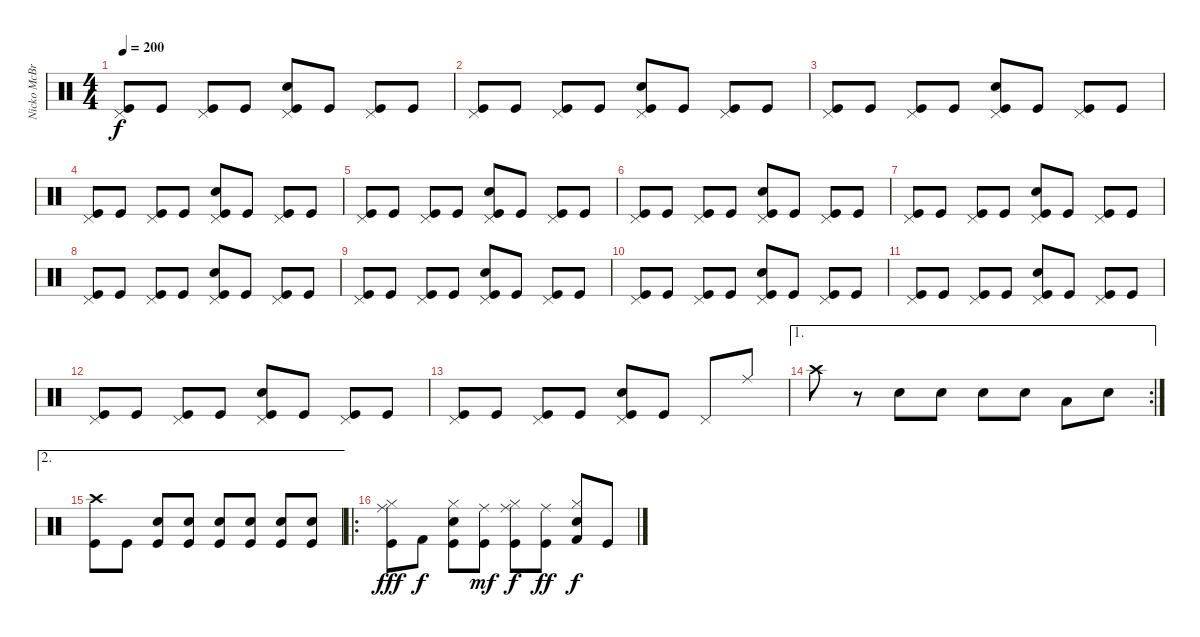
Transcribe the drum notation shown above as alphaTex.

\track ("Nicko McBrain" "Nicko McBr") {instrument percussion}
\staff {score}
\articulation defaults
\ts (4 4)
\tempo 200
\clef neutral
\ks c
("Pedal Hi-Hat (hit)" "Kick (hit)").8{dy f} "Kick (hit)".8 ("Pedal Hi-Hat (hit)" "Kick (hit)").8 "Kick (hit)".8 ("Pedal Hi-Hat (hit)" "Electric Snare (hit)" "Kick (hit)").8 "Kick (hit)".8 ("Pedal Hi-Hat (hit)" "Kick (hit)").8 "Kick (hit)".8 |
("Pedal Hi-Hat (hit)" "Kick (hit)").8 "Kick (hit)".8 ("Pedal Hi-Hat (hit)" "Kick (hit)").8 "Kick (hit)".8 ("Pedal Hi-Hat (hit)" "Electric Snare (hit)" "Kick (hit)").8 "Kick (hit)".8 ("Pedal Hi-Hat (hit)" "Kick (hit)").8 "Kick (hit)".8 |
("Pedal Hi-Hat (hit)" "Kick (hit)").8 "Kick (hit)".8 ("Pedal Hi-Hat (hit)" "Kick (hit)").8 "Kick (hit)".8 ("Pedal Hi-Hat (hit)" "Electric Snare (hit)" "Kick (hit)").8 "Kick (hit)".8 ("Pedal Hi-Hat (hit)" "Kick (hit)").8 "Kick (hit)".8 |
("Pedal Hi-Hat (hit)" "Kick (hit)").8 "Kick (hit)".8 ("Pedal Hi-Hat (hit)" "Kick (hit)").8 "Kick (hit)".8 ("Pedal Hi-Hat (hit)" "Electric Snare (hit)" "Kick (hit)").8 "Kick (hit)".8 ("Pedal Hi-Hat (hit)" "Kick (hit)").8 "Kick (hit)".8 |
("Pedal Hi-Hat (hit)" "Kick (hit)").8 "Kick (hit)".8 ("Pedal Hi-Hat (hit)" "Kick (hit)").8 "Kick (hit)".8 ("Pedal Hi-Hat (hit)" "Electric Snare (hit)" "Kick (hit)").8 "Kick (hit)".8 ("Pedal Hi-Hat (hit)" "Kick (hit)").8 "Kick (hit)".8 |
("Pedal Hi-Hat (hit)" "Kick (hit)").8 "Kick (hit)".8 ("Pedal Hi-Hat (hit)" "Kick (hit)").8 "Kick (hit)".8 ("Pedal Hi-Hat (hit)" "Electric Snare (hit)" "Kick (hit)").8 "Kick (hit)".8 ("Pedal Hi-Hat (hit)" "Kick (hit)").8 "Kick (hit)".8 |
("Pedal Hi-Hat (hit)" "Kick (hit)").8 "Kick (hit)".8 ("Pedal Hi-Hat (hit)" "Kick (hit)").8 "Kick (hit)".8 ("Pedal Hi-Hat (hit)" "Electric Snare (hit)" "Kick (hit)").8 "Kick (hit)".8 ("Pedal Hi-Hat (hit)" "Kick (hit)").8 "Kick (hit)".8 |
("Pedal Hi-Hat (hit)" "Kick (hit)").8 "Kick (hit)".8 ("Pedal Hi-Hat (hit)" "Kick (hit)").8 "Kick (hit)".8 ("Pedal Hi-Hat (hit)" "Electric Snare (hit)" "Kick (hit)").8 "Kick (hit)".8 ("Pedal Hi-Hat (hit)" "Kick (hit)").8 "Kick (hit)".8 |
("Pedal Hi-Hat (hit)" "Kick (hit)").8 "Kick (hit)".8 ("Pedal Hi-Hat (hit)" "Kick (hit)").8 "Kick (hit)".8 ("Pedal Hi-Hat (hit)" "Electric Snare (hit)" "Kick (hit)").8 "Kick (hit)".8 ("Pedal Hi-Hat (hit)" "Kick (hit)").8 "Kick (hit)".8 |
("Pedal Hi-Hat (hit)" "Kick (hit)").8 "Kick (hit)".8 ("Pedal Hi-Hat (hit)" "Kick (hit)").8 "Kick (hit)".8 ("Pedal Hi-Hat (hit)" "Electric Snare (hit)" "Kick (hit)").8 "Kick (hit)".8 ("Pedal Hi-Hat (hit)" "Kick (hit)").8 "Kick (hit)".8 |
("Pedal Hi-Hat (hit)" "Kick (hit)").8 "Kick (hit)".8 ("Pedal Hi-Hat (hit)" "Kick (hit)").8 "Kick (hit)".8 ("Pedal Hi-Hat (hit)" "Electric Snare (hit)" "Kick (hit)").8 "Kick (hit)".8 ("Pedal Hi-Hat (hit)" "Kick (hit)").8 "Kick (hit)".8 |
("Pedal Hi-Hat (hit)" "Kick (hit)").8 "Kick (hit)".8 ("Pedal Hi-Hat (hit)" "Kick (hit)").8 "Kick (hit)".8 ("Pedal Hi-Hat (hit)" "Electric Snare (hit)" "Kick (hit)").8 "Kick (hit)".8 ("Pedal Hi-Hat (hit)" "Kick (hit)").8 "Kick (hit)".8 |
("Pedal Hi-Hat (hit)" "Kick (hit)").8 "Kick (hit)".8 ("Pedal Hi-Hat (hit)" "Kick (hit)").8 "Kick (hit)".8 ("Pedal Hi-Hat (hit)" "Electric Snare (hit)" "Kick (hit)").8 "Kick (hit)".8 "Pedal Hi-Hat (hit)".8 "Ride (middle)".8 |
\ae 1
\rc 2 "Crash high (hit)".8
r.8 "Electric Snare (hit)".8 "Electric Snare (hit)".8 "Electric Snare (hit)".8 "Electric Snare (hit)".8 "Low Tom (hit)".8 "Snare (hit) 2".8 |
\ae 2
("Crash high (hit)" "Kick (hit)").8 "Kick (hit)".8 ("Electric Snare (hit)" "Kick (hit)").8 ("Electric Snare (hit)" "Kick (hit)").8 ("Electric Snare (hit)" "Kick (hit)").8 ("Electric Snare (hit)" "Kick (hit)").8 ("Electric Snare (hit)" "Kick (hit)").8 ("Electric Snare (hit)" "Kick (hit)").8 |
\ro
("Ride (middle)" "Hi-Hat (closed)" "Kick (hit)").8{dy fff} "Kick (hit) 2".8{dy f} ("Hi-Hat (closed)" "Electric Snare (hit)" "Kick (hit)").8 ("Ride (middle)" "Kick (hit)").8{dy mf} ("Ride (middle)" "Hi-Hat (closed)" "Kick (hit)").8{dy f} ("Ride (middle)" "Kick (hit)").8{dy ff} ("Hi-Hat (closed)" "Electric Snare (hit)" "Kick (hit) 2").8{dy f} "Kick (hit)".8
